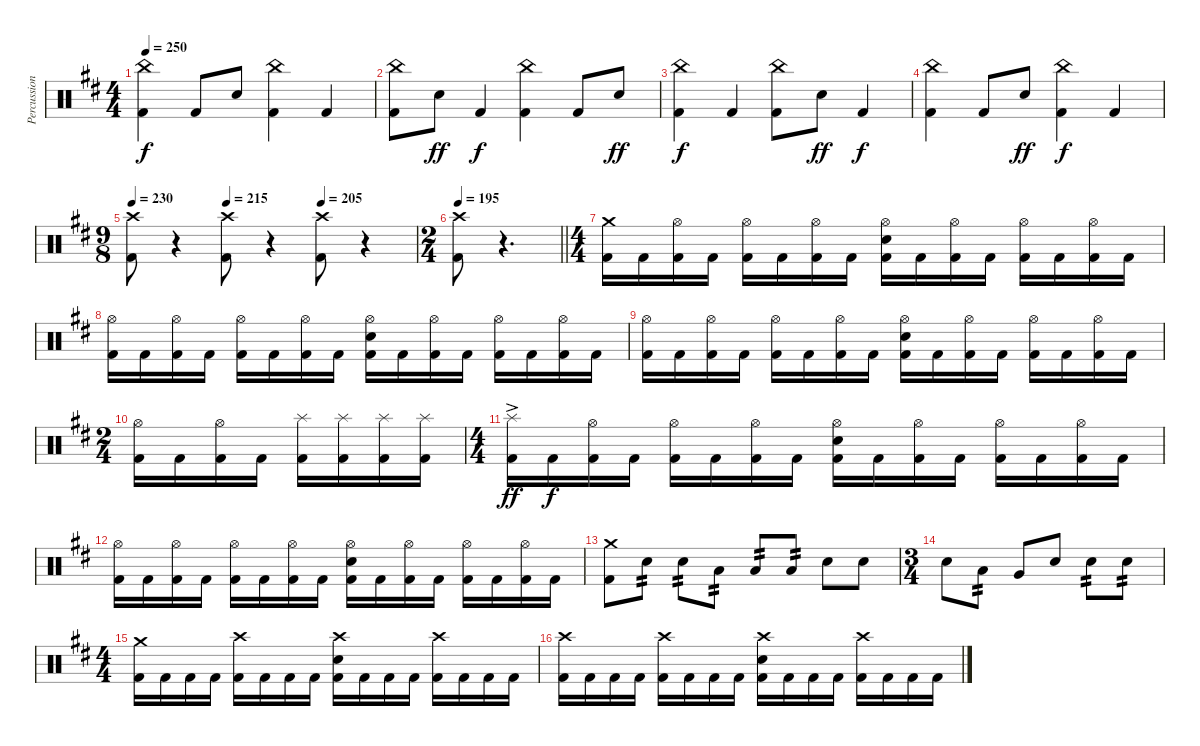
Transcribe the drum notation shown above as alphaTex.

\track ("Percussion" "Percussion") {instrument percussion}
\staff {score}
\articulation defaults
\ts (4 4)
\tempo 250
\clef neutral
\ks d
("Kick (hit) 2" "China (hit)").4{dy f} "Kick (hit) 2".8 "Electric Snare (hit)".8 ("Kick (hit) 2" "China (hit)").4 "Kick (hit) 2".4 |
("Kick (hit) 2" "China (hit)").8 "Electric Snare (hit)".8{dy ff} "Kick (hit) 2".4{dy f} ("Kick (hit) 2" "China (hit)").4 "Kick (hit) 2".8 "Electric Snare (hit)".8{dy ff} |
("Kick (hit) 2" "China (hit)").4{dy f} "Kick (hit) 2".4 ("Kick (hit) 2" "China (hit)").8 "Electric Snare (hit)".8{dy ff} "Kick (hit) 2".4{dy f} |
("Kick (hit) 2" "China (hit)").4 "Kick (hit) 2".8 "Electric Snare (hit)".8{dy ff} ("Kick (hit) 2" "China (hit)").4{dy f} "Kick (hit) 2".4 |
\ts (9 8)
\tempo 230
\tempo (215 0.3333333333333333)
\tempo (205 0.6666666666666666)
("Crash high (hit)" "Kick (hit) 2").8 r.4{volume 0} ("Crash high (hit)" "Kick (hit) 2").8{volume 13} r.4{volume 0} ("Crash high (hit)" "Kick (hit) 2").8{volume 13} r.4{volume 0} |
\ts (2 4)
\tempo 195
\barLineRight lightlight
("Crash high (hit)" "Kick (hit) 2").8{volume 13} r.4{d volume 0} |
\ts (4 4)
("Kick (hit) 2" "Crash medium (hit)").16{volume 13} "Kick (hit) 2".16 ("Kick (hit) 2" "Hi-Hat (open)").16 "Kick (hit) 2".16 ("Kick (hit) 2" "Hi-Hat (open)").16 "Kick (hit) 2".16 ("Kick (hit) 2" "Hi-Hat (open)").16 "Kick (hit) 2".16 ("Kick (hit) 2" "Hi-Hat (open)" "Electric Snare (hit)").16 "Kick (hit) 2".16 ("Kick (hit) 2" "Hi-Hat (open)").16 "Kick (hit) 2".16 ("Kick (hit) 2" "Hi-Hat (open)").16 "Kick (hit) 2".16 ("Kick (hit) 2" "Hi-Hat (open)").16 "Kick (hit) 2".16 |
("Kick (hit) 2" "Hi-Hat (open)").16 "Kick (hit) 2".16 ("Kick (hit) 2" "Hi-Hat (open)").16 "Kick (hit) 2".16 ("Kick (hit) 2" "Hi-Hat (open)").16 "Kick (hit) 2".16 ("Kick (hit) 2" "Hi-Hat (open)").16 "Kick (hit) 2".16 ("Kick (hit) 2" "Hi-Hat (open)" "Electric Snare (hit)").16 "Kick (hit) 2".16 ("Kick (hit) 2" "Hi-Hat (open)").16 "Kick (hit) 2".16 ("Kick (hit) 2" "Hi-Hat (open)").16 "Kick (hit) 2".16 ("Kick (hit) 2" "Hi-Hat (open)").16 "Kick (hit) 2".16 |
("Kick (hit) 2" "Hi-Hat (open)").16 "Kick (hit) 2".16 ("Kick (hit) 2" "Hi-Hat (open)").16 "Kick (hit) 2".16 ("Kick (hit) 2" "Hi-Hat (open)").16 "Kick (hit) 2".16 ("Kick (hit) 2" "Hi-Hat (open)").16 "Kick (hit) 2".16 ("Kick (hit) 2" "Hi-Hat (open)" "Electric Snare (hit)").16 "Kick (hit) 2".16 ("Kick (hit) 2" "Hi-Hat (open)").16 "Kick (hit) 2".16 ("Kick (hit) 2" "Hi-Hat (open)").16 "Kick (hit) 2".16 ("Kick (hit) 2" "Hi-Hat (open)").16 "Kick (hit) 2".16 |
\ts (2 4)
("Kick (hit) 2" "Hi-Hat (open)").16 "Kick (hit) 2".16 ("Kick (hit) 2" "Hi-Hat (open)").16 "Kick (hit) 2".16 ("Kick (hit) 2" "Splash (hit)").16 ("Kick (hit) 2" "Splash (hit)").16 ("Kick (hit) 2" "Splash (hit)").16 ("Kick (hit) 2" "Splash (hit)").16 |
\ts (4 4)
("Kick (hit) 2" "Splash (hit)"{ac}).16{dy ff} "Kick (hit) 2".16{dy f} ("Kick (hit) 2" "Hi-Hat (open)").16 "Kick (hit) 2".16 ("Kick (hit) 2" "Hi-Hat (open)").16 "Kick (hit) 2".16 ("Kick (hit) 2" "Hi-Hat (open)").16 "Kick (hit) 2".16 ("Kick (hit) 2" "Hi-Hat (open)" "Electric Snare (hit)").16 "Kick (hit) 2".16 ("Kick (hit) 2" "Hi-Hat (open)").16 "Kick (hit) 2".16 ("Kick (hit) 2" "Hi-Hat (open)").16 "Kick (hit) 2".16 ("Kick (hit) 2" "Hi-Hat (open)").16 "Kick (hit) 2".16 |
("Kick (hit) 2" "Hi-Hat (open)").16 "Kick (hit) 2".16 ("Kick (hit) 2" "Hi-Hat (open)").16 "Kick (hit) 2".16 ("Kick (hit) 2" "Hi-Hat (open)").16 "Kick (hit) 2".16 ("Kick (hit) 2" "Hi-Hat (open)").16 "Kick (hit) 2".16 ("Kick (hit) 2" "Hi-Hat (open)" "Electric Snare (hit)").16 "Kick (hit) 2".16 ("Kick (hit) 2" "Hi-Hat (open)").16 "Kick (hit) 2".16 ("Kick (hit) 2" "Hi-Hat (open)").16 "Kick (hit) 2".16 ("Kick (hit) 2" "Hi-Hat (open)").16 "Kick (hit) 2".16 |
("Crash medium (hit)" "Kick (hit) 2").8 "Electric Snare (hit)".8{tp 2} "Electric Snare (hit)".8{tp 2} "Low Tom (hit)".8{tp 2} "Low Tom (hit)".8{tp 2} "Low Tom (hit)".8{tp 2} "Electric Snare (hit)".8 "Electric Snare (hit)".8 |
\ts (3 4)
"Electric Snare (hit)".8 "Low Tom (hit)".8{tp 2} "Very Low Tom (hit)".8 "Electric Snare (hit)".8 "Electric Snare (hit)".8{tp 2} "Electric Snare (hit)".8{tp 2} |
\ts (4 4)
("Kick (hit) 2" "Crash medium (hit)").16 "Kick (hit) 2".16 "Kick (hit) 2".16 "Kick (hit) 2".16 ("Kick (hit) 2" "Crash high (hit)").16 "Kick (hit) 2".16 "Kick (hit) 2".16 "Kick (hit) 2".16 ("Kick (hit) 2" "Crash high (hit)" "Electric Snare (hit)").16 "Kick (hit) 2".16 "Kick (hit) 2".16 "Kick (hit) 2".16 ("Kick (hit) 2" "Crash high (hit)").16 "Kick (hit) 2".16 "Kick (hit) 2".16 "Kick (hit) 2".16 |
("Kick (hit) 2" "Crash high (hit)").16 "Kick (hit) 2".16 "Kick (hit) 2".16 "Kick (hit) 2".16 ("Kick (hit) 2" "Crash high (hit)").16 "Kick (hit) 2".16 "Kick (hit) 2".16 "Kick (hit) 2".16 ("Kick (hit) 2" "Crash high (hit)" "Electric Snare (hit)").16 "Kick (hit) 2".16 "Kick (hit) 2".16 "Kick (hit) 2".16 ("Kick (hit) 2" "Crash high (hit)").16 "Kick (hit) 2".16 "Kick (hit) 2".16 "Kick (hit) 2".16
